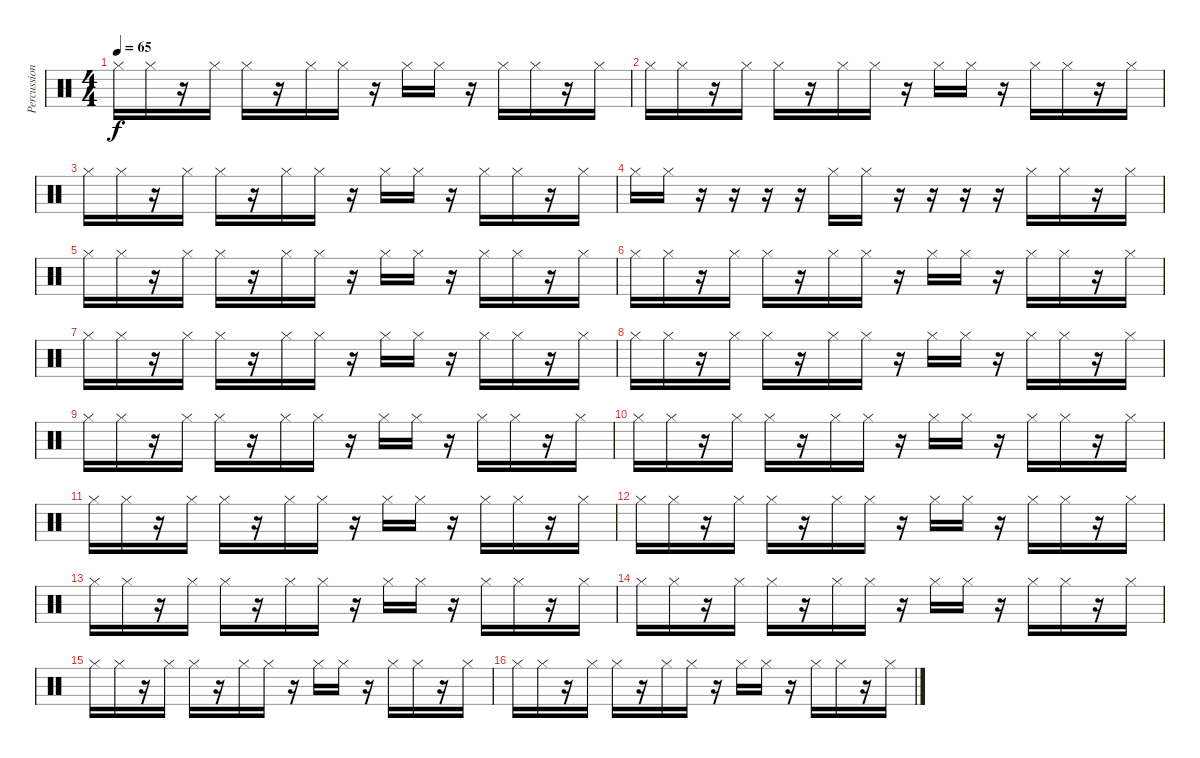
\track ("Percussions" "Percussion") {instrument percussion}
\staff {score}
\articulation defaults
\ts (4 4)
\tempo 65
\clef neutral
\ks c "Hi-Hat (closed)".16{dy f volume 12 balance 12} "Hi-Hat (closed)".16
r.16{balance 14} "Hi-Hat (closed)".16 "Hi-Hat (closed)".16 r.16{balance 16} "Hi-Hat (closed)".16 "Hi-Hat (closed)".16 r.16{balance 6} "Hi-Hat (closed)".16 "Hi-Hat (closed)".16 r.16{volume 12 balance 8} "Hi-Hat (closed)".16 "Hi-Hat (closed)".16 r.16{balance 10} "Hi-Hat (closed)".16 |
"Hi-Hat (closed)".16{volume 12 balance 0} "Hi-Hat (closed)".16 r.16{balance 2} "Hi-Hat (closed)".16 "Hi-Hat (closed)".16 r.16{balance 4} "Hi-Hat (closed)".16 "Hi-Hat (closed)".16 r.16{balance 6} "Hi-Hat (closed)".16 "Hi-Hat (closed)".16 r.16{volume 12 balance 8} "Hi-Hat (closed)".16 "Hi-Hat (closed)".16 r.16{balance 10} "Hi-Hat (closed)".16 |
"Hi-Hat (closed)".16{volume 12 balance 12} "Hi-Hat (closed)".16 r.16{balance 14} "Hi-Hat (closed)".16 "Hi-Hat (closed)".16 r.16{balance 16} "Hi-Hat (closed)".16 "Hi-Hat (closed)".16 r.16{balance 6} "Hi-Hat (closed)".16 "Hi-Hat (closed)".16 r.16{volume 12 balance 8} "Hi-Hat (closed)".16 "Hi-Hat (closed)".16 r.16{balance 10} "Hi-Hat (closed)".16 |
"Hi-Hat (closed)".16{volume 12 balance 12} "Hi-Hat (closed)".16 r.16{balance 14} r.16 r.16 r.16{balance 16} "Hi-Hat (closed)".16 "Hi-Hat (closed)".16 r.16{balance 6} r.16 r.16 r.16{volume 12 balance 8} "Hi-Hat (closed)".16 "Hi-Hat (closed)".16 r.16{balance 10} "Hi-Hat (closed)".16 |
"Hi-Hat (closed)".16{volume 12 balance 0} "Hi-Hat (closed)".16 r.16{balance 2} "Hi-Hat (closed)".16 "Hi-Hat (closed)".16 r.16{balance 4} "Hi-Hat (closed)".16 "Hi-Hat (closed)".16 r.16{balance 6} "Hi-Hat (closed)".16 "Hi-Hat (closed)".16 r.16{volume 12 balance 8} "Hi-Hat (closed)".16 "Hi-Hat (closed)".16 r.16{balance 10} "Hi-Hat (closed)".16 |
"Hi-Hat (closed)".16{volume 12 balance 12} "Hi-Hat (closed)".16 r.16{balance 14} "Hi-Hat (closed)".16 "Hi-Hat (closed)".16 r.16{balance 16} "Hi-Hat (closed)".16 "Hi-Hat (closed)".16 r.16{balance 6} "Hi-Hat (closed)".16 "Hi-Hat (closed)".16 r.16{volume 12 balance 8} "Hi-Hat (closed)".16 "Hi-Hat (closed)".16 r.16{balance 10} "Hi-Hat (closed)".16 |
"Hi-Hat (closed)".16{volume 12 balance 0} "Hi-Hat (closed)".16 r.16{balance 2} "Hi-Hat (closed)".16 "Hi-Hat (closed)".16 r.16{balance 4} "Hi-Hat (closed)".16 "Hi-Hat (closed)".16 r.16{balance 6} "Hi-Hat (closed)".16 "Hi-Hat (closed)".16 r.16{volume 12 balance 8} "Hi-Hat (closed)".16 "Hi-Hat (closed)".16 r.16{balance 10} "Hi-Hat (closed)".16 |
"Hi-Hat (closed)".16{volume 12 balance 0} "Hi-Hat (closed)".16 r.16{balance 2} "Hi-Hat (closed)".16 "Hi-Hat (closed)".16 r.16{balance 4} "Hi-Hat (closed)".16 "Hi-Hat (closed)".16 r.16{balance 6} "Hi-Hat (closed)".16 "Hi-Hat (closed)".16 r.16{volume 12 balance 8} "Hi-Hat (closed)".16 "Hi-Hat (closed)".16 r.16{balance 10} "Hi-Hat (closed)".16 |
"Hi-Hat (closed)".16{volume 12 balance 0} "Hi-Hat (closed)".16 r.16{balance 2} "Hi-Hat (closed)".16 "Hi-Hat (closed)".16 r.16{balance 4} "Hi-Hat (closed)".16 "Hi-Hat (closed)".16 r.16{balance 6} "Hi-Hat (closed)".16 "Hi-Hat (closed)".16 r.16{volume 12 balance 8} "Hi-Hat (closed)".16 "Hi-Hat (closed)".16 r.16{balance 10} "Hi-Hat (closed)".16 |
"Hi-Hat (closed)".16{volume 12 balance 12} "Hi-Hat (closed)".16 r.16{balance 14} "Hi-Hat (closed)".16 "Hi-Hat (closed)".16 r.16{balance 16} "Hi-Hat (closed)".16 "Hi-Hat (closed)".16 r.16{balance 6} "Hi-Hat (closed)".16 "Hi-Hat (closed)".16 r.16{volume 12 balance 8} "Hi-Hat (closed)".16 "Hi-Hat (closed)".16 r.16{balance 10} "Hi-Hat (closed)".16 |
"Hi-Hat (closed)".16{volume 12 balance 0} "Hi-Hat (closed)".16 r.16{balance 2} "Hi-Hat (closed)".16 "Hi-Hat (closed)".16 r.16{balance 4} "Hi-Hat (closed)".16 "Hi-Hat (closed)".16 r.16{balance 6} "Hi-Hat (closed)".16 "Hi-Hat (closed)".16 r.16{volume 12 balance 8} "Hi-Hat (closed)".16 "Hi-Hat (closed)".16 r.16{balance 10} "Hi-Hat (closed)".16 |
"Hi-Hat (closed)".16{volume 12 balance 12} "Hi-Hat (closed)".16 r.16{balance 14} "Hi-Hat (closed)".16 "Hi-Hat (closed)".16 r.16{balance 16} "Hi-Hat (closed)".16 "Hi-Hat (closed)".16 r.16{balance 6} "Hi-Hat (closed)".16 "Hi-Hat (closed)".16 r.16{volume 12 balance 8} "Hi-Hat (closed)".16 "Hi-Hat (closed)".16 r.16{balance 10} "Hi-Hat (closed)".16 |
"Hi-Hat (closed)".16{volume 12 balance 0} "Hi-Hat (closed)".16 r.16{balance 2} "Hi-Hat (closed)".16 "Hi-Hat (closed)".16 r.16{balance 4} "Hi-Hat (closed)".16 "Hi-Hat (closed)".16 r.16{balance 6} "Hi-Hat (closed)".16 "Hi-Hat (closed)".16 r.16{volume 12 balance 8} "Hi-Hat (closed)".16 "Hi-Hat (closed)".16 r.16{balance 10} "Hi-Hat (closed)".16 |
"Hi-Hat (closed)".16{volume 12 balance 12} "Hi-Hat (closed)".16 r.16{balance 14} "Hi-Hat (closed)".16 "Hi-Hat (closed)".16 r.16{balance 16} "Hi-Hat (closed)".16 "Hi-Hat (closed)".16 r.16{balance 6} "Hi-Hat (closed)".16 "Hi-Hat (closed)".16 r.16{volume 12 balance 8} "Hi-Hat (closed)".16 "Hi-Hat (closed)".16 r.16{balance 10} "Hi-Hat (closed)".16 |
"Hi-Hat (closed)".16{volume 12 balance 0} "Hi-Hat (closed)".16 r.16{balance 2} "Hi-Hat (closed)".16 "Hi-Hat (closed)".16 r.16{balance 4} "Hi-Hat (closed)".16 "Hi-Hat (closed)".16 r.16{balance 6} "Hi-Hat (closed)".16 "Hi-Hat (closed)".16 r.16{volume 12 balance 8} "Hi-Hat (closed)".16 "Hi-Hat (closed)".16 r.16{balance 10} "Hi-Hat (closed)".16 |
"Hi-Hat (closed)".16{volume 12 balance 12} "Hi-Hat (closed)".16 r.16{balance 14} "Hi-Hat (closed)".16 "Hi-Hat (closed)".16 r.16{balance 16} "Hi-Hat (closed)".16 "Hi-Hat (closed)".16 r.16{balance 6} "Hi-Hat (closed)".16 "Hi-Hat (closed)".16 r.16{volume 12 balance 8} "Hi-Hat (closed)".16 "Hi-Hat (closed)".16 r.16{balance 10} "Hi-Hat (closed)".16
